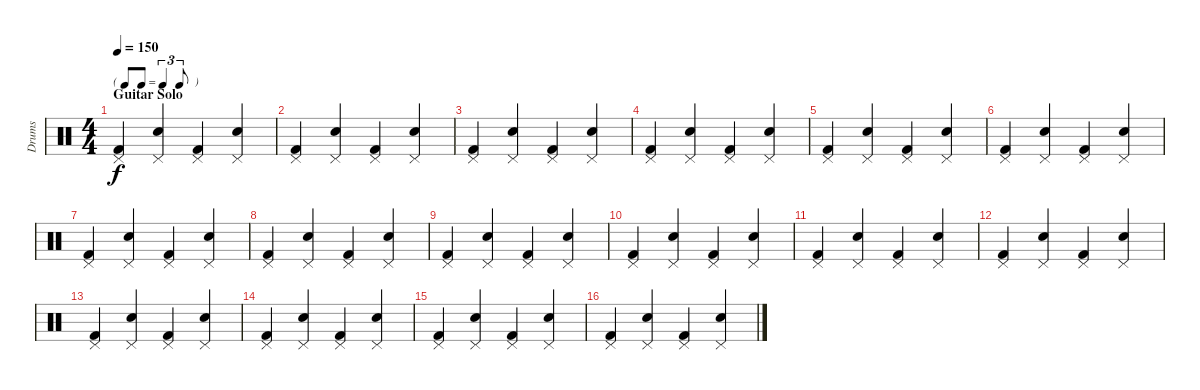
\track ("Drums" "Drums") {instrument percussion}
\staff {score}
\articulation defaults
\ts (4 4)
\tf triplet8th
\section ("" "Guitar Solo")
\tempo 150
\clef neutral
\ks c
("Pedal Hi-Hat (hit)" "Kick (hit) 2").4{dy f} ("Pedal Hi-Hat (hit)" "Snare (hit) 2").4 ("Pedal Hi-Hat (hit)" "Kick (hit) 2").4 ("Pedal Hi-Hat (hit)" "Snare (hit) 2").4 |
("Pedal Hi-Hat (hit)" "Kick (hit) 2").4 ("Pedal Hi-Hat (hit)" "Snare (hit) 2").4 ("Pedal Hi-Hat (hit)" "Kick (hit) 2").4 ("Pedal Hi-Hat (hit)" "Snare (hit) 2").4 |
("Pedal Hi-Hat (hit)" "Kick (hit) 2").4 ("Pedal Hi-Hat (hit)" "Snare (hit) 2").4 ("Pedal Hi-Hat (hit)" "Kick (hit) 2").4 ("Pedal Hi-Hat (hit)" "Snare (hit) 2").4 |
("Pedal Hi-Hat (hit)" "Kick (hit) 2").4 ("Pedal Hi-Hat (hit)" "Snare (hit) 2").4 ("Pedal Hi-Hat (hit)" "Kick (hit) 2").4 ("Pedal Hi-Hat (hit)" "Snare (hit) 2").4 |
("Pedal Hi-Hat (hit)" "Kick (hit) 2").4 ("Pedal Hi-Hat (hit)" "Snare (hit) 2").4 ("Pedal Hi-Hat (hit)" "Kick (hit) 2").4 ("Pedal Hi-Hat (hit)" "Snare (hit) 2").4 |
("Pedal Hi-Hat (hit)" "Kick (hit) 2").4 ("Pedal Hi-Hat (hit)" "Snare (hit) 2").4 ("Pedal Hi-Hat (hit)" "Kick (hit) 2").4 ("Pedal Hi-Hat (hit)" "Snare (hit) 2").4 |
("Pedal Hi-Hat (hit)" "Kick (hit) 2").4 ("Pedal Hi-Hat (hit)" "Snare (hit) 2").4 ("Pedal Hi-Hat (hit)" "Kick (hit) 2").4 ("Pedal Hi-Hat (hit)" "Snare (hit) 2").4 |
("Pedal Hi-Hat (hit)" "Kick (hit) 2").4 ("Pedal Hi-Hat (hit)" "Snare (hit) 2").4 ("Pedal Hi-Hat (hit)" "Kick (hit) 2").4 ("Pedal Hi-Hat (hit)" "Snare (hit) 2").4 |
("Pedal Hi-Hat (hit)" "Kick (hit) 2").4 ("Pedal Hi-Hat (hit)" "Snare (hit) 2").4 ("Pedal Hi-Hat (hit)" "Kick (hit) 2").4 ("Pedal Hi-Hat (hit)" "Snare (hit) 2").4 |
("Pedal Hi-Hat (hit)" "Kick (hit) 2").4 ("Pedal Hi-Hat (hit)" "Snare (hit) 2").4 ("Pedal Hi-Hat (hit)" "Kick (hit) 2").4 ("Pedal Hi-Hat (hit)" "Snare (hit) 2").4 |
("Pedal Hi-Hat (hit)" "Kick (hit) 2").4 ("Pedal Hi-Hat (hit)" "Snare (hit) 2").4 ("Pedal Hi-Hat (hit)" "Kick (hit) 2").4 ("Pedal Hi-Hat (hit)" "Snare (hit) 2").4 |
("Pedal Hi-Hat (hit)" "Kick (hit) 2").4 ("Pedal Hi-Hat (hit)" "Snare (hit) 2").4 ("Pedal Hi-Hat (hit)" "Kick (hit) 2").4 ("Pedal Hi-Hat (hit)" "Snare (hit) 2").4 |
("Pedal Hi-Hat (hit)" "Kick (hit) 2").4 ("Pedal Hi-Hat (hit)" "Snare (hit) 2").4 ("Pedal Hi-Hat (hit)" "Kick (hit) 2").4 ("Pedal Hi-Hat (hit)" "Snare (hit) 2").4 |
("Pedal Hi-Hat (hit)" "Kick (hit) 2").4 ("Pedal Hi-Hat (hit)" "Snare (hit) 2").4 ("Pedal Hi-Hat (hit)" "Kick (hit) 2").4 ("Pedal Hi-Hat (hit)" "Snare (hit) 2").4 |
("Pedal Hi-Hat (hit)" "Kick (hit) 2").4 ("Pedal Hi-Hat (hit)" "Snare (hit) 2").4 ("Pedal Hi-Hat (hit)" "Kick (hit) 2").4 ("Pedal Hi-Hat (hit)" "Snare (hit) 2").4 |
("Pedal Hi-Hat (hit)" "Kick (hit) 2").4 ("Pedal Hi-Hat (hit)" "Snare (hit) 2").4 ("Pedal Hi-Hat (hit)" "Kick (hit) 2").4 ("Pedal Hi-Hat (hit)" "Snare (hit) 2").4
